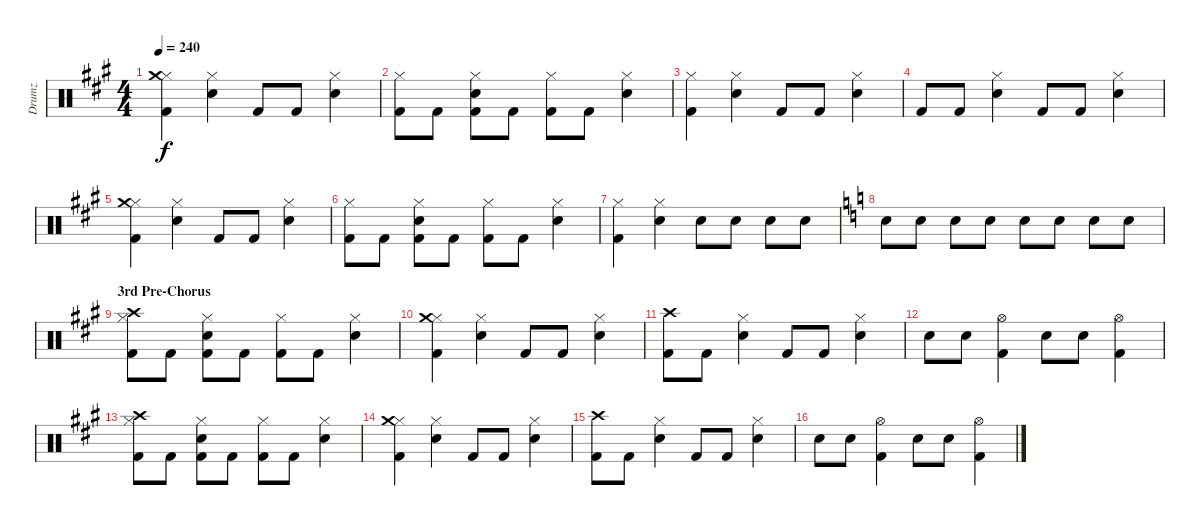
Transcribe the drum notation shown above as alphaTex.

\track ("Drumz" "Drumz") {instrument percussion}
\staff {score}
\articulation defaults
\ts (4 4)
\tempo 240
\clef neutral
\ks a
("Hi-Hat (closed)" "Crash medium (hit)" "Kick (hit) 2").4{dy f} ("Hi-Hat (closed)" "Electric Snare (hit)").4 "Kick (hit) 2".8 "Kick (hit) 2".8 ("Electric Snare (hit)" "Hi-Hat (closed)").4 |
("Hi-Hat (closed)" "Kick (hit) 2").8 "Kick (hit) 2".8 ("Hi-Hat (closed)" "Electric Snare (hit)" "Kick (hit) 2").8 "Kick (hit) 2".8 ("Hi-Hat (closed)" "Kick (hit) 2").8 "Kick (hit) 2".8 ("Hi-Hat (closed)" "Electric Snare (hit)").4 |
("Hi-Hat (closed)" "Kick (hit) 2").4 ("Hi-Hat (closed)" "Electric Snare (hit)").4 "Kick (hit) 2".8 "Kick (hit) 2".8 ("Electric Snare (hit)" "Hi-Hat (closed)").4 |
"Kick (hit) 2".8 "Kick (hit) 2".8 ("Hi-Hat (closed)" "Electric Snare (hit)").4 "Kick (hit) 2".8 "Kick (hit) 2".8 ("Electric Snare (hit)" "Hi-Hat (closed)").4 |
("Hi-Hat (closed)" "Crash medium (hit)" "Kick (hit) 2").4 ("Hi-Hat (closed)" "Electric Snare (hit)").4 "Kick (hit) 2".8 "Kick (hit) 2".8 ("Electric Snare (hit)" "Hi-Hat (closed)").4 |
("Hi-Hat (closed)" "Kick (hit) 2").8 "Kick (hit) 2".8 ("Hi-Hat (closed)" "Electric Snare (hit)" "Kick (hit) 2").8 "Kick (hit) 2".8 ("Hi-Hat (closed)" "Kick (hit) 2").8 "Kick (hit) 2".8 ("Hi-Hat (closed)" "Electric Snare (hit)").4 |
("Hi-Hat (closed)" "Kick (hit) 2").4 ("Hi-Hat (closed)" "Electric Snare (hit)").4 "Electric Snare (hit)".8 "Electric Snare (hit)".8 "Electric Snare (hit)".8 "Electric Snare (hit)".8 |
\ks c "Electric Snare (hit)".8 "Electric Snare (hit)".8 "Electric Snare (hit)".8 "Electric Snare (hit)".8 "Electric Snare (hit)".8 "Electric Snare (hit)".8 "Electric Snare (hit)".8 "Electric Snare (hit)".8
|
\section ("" "3rd Pre-Chorus")
\ks a
("Hi-Hat (closed)" "Crash high (hit)" "Kick (hit) 2").8 "Kick (hit) 2".8 ("Hi-Hat (closed)" "Electric Snare (hit)" "Kick (hit) 2").8 "Kick (hit) 2".8 ("Hi-Hat (closed)" "Kick (hit) 2").8 "Kick (hit) 2".8 ("Hi-Hat (closed)" "Electric Snare (hit)").4 |
("Hi-Hat (closed)" "Crash medium (hit)" "Kick (hit) 2").4 ("Hi-Hat (closed)" "Electric Snare (hit)").4 "Kick (hit) 2".8 "Kick (hit) 2".8 ("Electric Snare (hit)" "Hi-Hat (closed)").4 |
("Kick (hit) 2" "Crash high (hit)").8 "Kick (hit) 2".8 ("Hi-Hat (closed)" "Electric Snare (hit)").4 "Kick (hit) 2".8 "Kick (hit) 2".8 ("Electric Snare (hit)" "Hi-Hat (closed)").4 |
"Electric Snare (hit)".8 "Electric Snare (hit)".8 ("Hi-Hat (open)" "Kick (hit) 2").4 "Electric Snare (hit)".8 "Electric Snare (hit)".8 ("Hi-Hat (open)" "Kick (hit) 2").4 |
("Hi-Hat (closed)" "Crash high (hit)" "Kick (hit) 2").8 "Kick (hit) 2".8 ("Hi-Hat (closed)" "Electric Snare (hit)" "Kick (hit) 2").8 "Kick (hit) 2".8 ("Hi-Hat (closed)" "Kick (hit) 2").8 "Kick (hit) 2".8 ("Hi-Hat (closed)" "Electric Snare (hit)").4 |
("Hi-Hat (closed)" "Crash medium (hit)" "Kick (hit) 2").4 ("Hi-Hat (closed)" "Electric Snare (hit)").4 "Kick (hit) 2".8 "Kick (hit) 2".8 ("Electric Snare (hit)" "Hi-Hat (closed)").4 |
("Kick (hit) 2" "Crash high (hit)").8 "Kick (hit) 2".8 ("Hi-Hat (closed)" "Electric Snare (hit)").4 "Kick (hit) 2".8 "Kick (hit) 2".8 ("Electric Snare (hit)" "Hi-Hat (closed)").4 |
"Electric Snare (hit)".8 "Electric Snare (hit)".8 ("Hi-Hat (open)" "Kick (hit) 2").4 "Electric Snare (hit)".8 "Electric Snare (hit)".8 ("Hi-Hat (open)" "Kick (hit) 2").4
